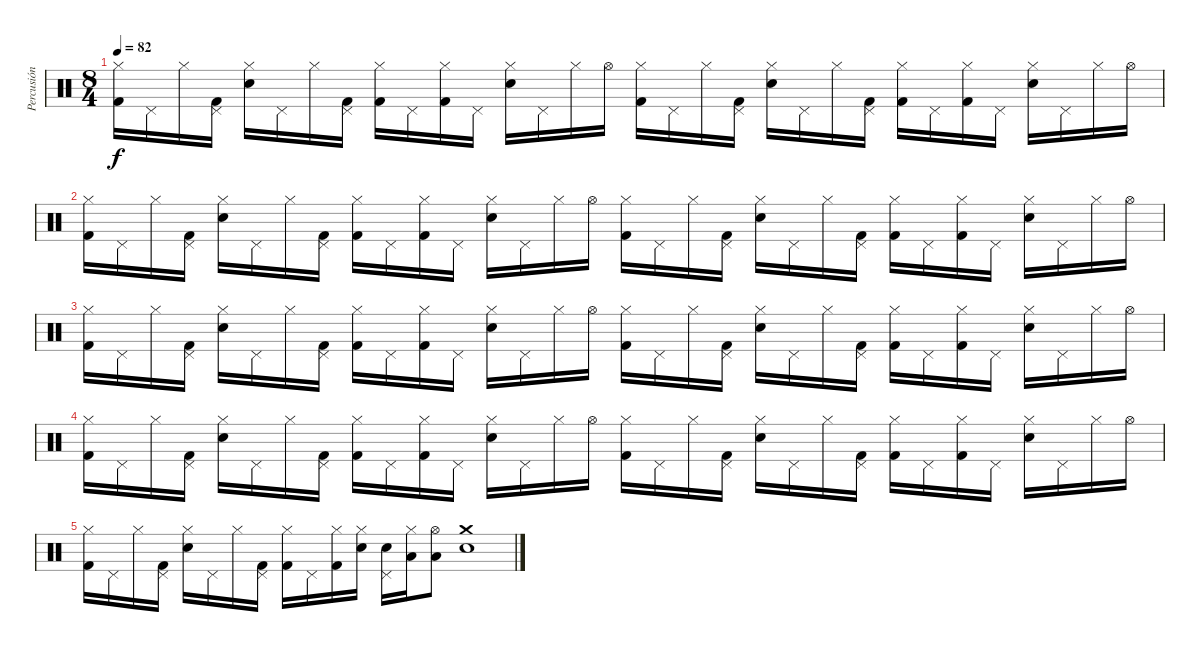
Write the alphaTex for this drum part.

\track ("Percusión" "Percusión") {instrument percussion}
\staff {score}
\articulation defaults
\ts (8 4)
\tempo 82
\clef neutral
\ks c
("Hi-Hat (closed)" "Kick (hit) 2").16{dy f} "Pedal Hi-Hat (hit)".16 "Hi-Hat (closed)".16 ("Pedal Hi-Hat (hit)" "Kick (hit) 2").16 ("Hi-Hat (closed)" "Electric Snare (hit)").16 "Pedal Hi-Hat (hit)".16 "Hi-Hat (closed)".16 ("Pedal Hi-Hat (hit)" "Kick (hit) 2").16 ("Hi-Hat (closed)" "Kick (hit) 2").16 "Pedal Hi-Hat (hit)".16 ("Hi-Hat (closed)" "Kick (hit) 2").16 "Pedal Hi-Hat (hit)".16 ("Hi-Hat (closed)" "Electric Snare (hit)").16 "Pedal Hi-Hat (hit)".16 "Hi-Hat (closed)".16 "Hi-Hat (open)".16 ("Hi-Hat (closed)" "Kick (hit) 2").16 "Pedal Hi-Hat (hit)".16 "Hi-Hat (closed)".16 ("Pedal Hi-Hat (hit)" "Kick (hit) 2").16 ("Hi-Hat (closed)" "Electric Snare (hit)").16 "Pedal Hi-Hat (hit)".16 "Hi-Hat (closed)".16 ("Pedal Hi-Hat (hit)" "Kick (hit) 2").16 ("Hi-Hat (closed)" "Kick (hit) 2").16 "Pedal Hi-Hat (hit)".16 ("Hi-Hat (closed)" "Kick (hit) 2").16 "Pedal Hi-Hat (hit)".16 ("Hi-Hat (closed)" "Electric Snare (hit)").16 "Pedal Hi-Hat (hit)".16 "Hi-Hat (closed)".16 "Hi-Hat (open)".16 |
("Hi-Hat (closed)" "Kick (hit) 2").16 "Pedal Hi-Hat (hit)".16 "Hi-Hat (closed)".16 ("Pedal Hi-Hat (hit)" "Kick (hit) 2").16 ("Hi-Hat (closed)" "Electric Snare (hit)").16 "Pedal Hi-Hat (hit)".16 "Hi-Hat (closed)".16 ("Pedal Hi-Hat (hit)" "Kick (hit) 2").16 ("Hi-Hat (closed)" "Kick (hit) 2").16 "Pedal Hi-Hat (hit)".16 ("Hi-Hat (closed)" "Kick (hit) 2").16 "Pedal Hi-Hat (hit)".16 ("Hi-Hat (closed)" "Electric Snare (hit)").16 "Pedal Hi-Hat (hit)".16 "Hi-Hat (closed)".16 "Hi-Hat (open)".16 ("Hi-Hat (closed)" "Kick (hit) 2").16 "Pedal Hi-Hat (hit)".16 "Hi-Hat (closed)".16 ("Pedal Hi-Hat (hit)" "Kick (hit) 2").16 ("Hi-Hat (closed)" "Electric Snare (hit)").16 "Pedal Hi-Hat (hit)".16 "Hi-Hat (closed)".16 ("Pedal Hi-Hat (hit)" "Kick (hit) 2").16 ("Hi-Hat (closed)" "Kick (hit) 2").16 "Pedal Hi-Hat (hit)".16 ("Hi-Hat (closed)" "Kick (hit) 2").16 "Pedal Hi-Hat (hit)".16 ("Hi-Hat (closed)" "Electric Snare (hit)").16 "Pedal Hi-Hat (hit)".16 "Hi-Hat (closed)".16 "Hi-Hat (open)".16 |
("Hi-Hat (closed)" "Kick (hit) 2").16 "Pedal Hi-Hat (hit)".16 "Hi-Hat (closed)".16 ("Pedal Hi-Hat (hit)" "Kick (hit) 2").16 ("Hi-Hat (closed)" "Electric Snare (hit)").16 "Pedal Hi-Hat (hit)".16 "Hi-Hat (closed)".16 ("Pedal Hi-Hat (hit)" "Kick (hit) 2").16 ("Hi-Hat (closed)" "Kick (hit) 2").16 "Pedal Hi-Hat (hit)".16 ("Hi-Hat (closed)" "Kick (hit) 2").16 "Pedal Hi-Hat (hit)".16 ("Hi-Hat (closed)" "Electric Snare (hit)").16 "Pedal Hi-Hat (hit)".16 "Hi-Hat (closed)".16 "Hi-Hat (open)".16 ("Hi-Hat (closed)" "Kick (hit) 2").16 "Pedal Hi-Hat (hit)".16 "Hi-Hat (closed)".16 ("Pedal Hi-Hat (hit)" "Kick (hit) 2").16 ("Hi-Hat (closed)" "Electric Snare (hit)").16 "Pedal Hi-Hat (hit)".16 "Hi-Hat (closed)".16 ("Pedal Hi-Hat (hit)" "Kick (hit) 2").16 ("Hi-Hat (closed)" "Kick (hit) 2").16 "Pedal Hi-Hat (hit)".16 ("Hi-Hat (closed)" "Kick (hit) 2").16 "Pedal Hi-Hat (hit)".16 ("Hi-Hat (closed)" "Electric Snare (hit)").16 "Pedal Hi-Hat (hit)".16 "Hi-Hat (closed)".16 "Hi-Hat (open)".16 |
("Hi-Hat (closed)" "Kick (hit) 2").16 "Pedal Hi-Hat (hit)".16 "Hi-Hat (closed)".16 ("Pedal Hi-Hat (hit)" "Kick (hit) 2").16 ("Hi-Hat (closed)" "Electric Snare (hit)").16 "Pedal Hi-Hat (hit)".16 "Hi-Hat (closed)".16 ("Pedal Hi-Hat (hit)" "Kick (hit) 2").16 ("Hi-Hat (closed)" "Kick (hit) 2").16 "Pedal Hi-Hat (hit)".16 ("Hi-Hat (closed)" "Kick (hit) 2").16 "Pedal Hi-Hat (hit)".16 ("Hi-Hat (closed)" "Electric Snare (hit)").16 "Pedal Hi-Hat (hit)".16 "Hi-Hat (closed)".16 "Hi-Hat (open)".16 ("Hi-Hat (closed)" "Kick (hit) 2").16 "Pedal Hi-Hat (hit)".16 "Hi-Hat (closed)".16 ("Pedal Hi-Hat (hit)" "Kick (hit) 2").16 ("Hi-Hat (closed)" "Electric Snare (hit)").16 "Pedal Hi-Hat (hit)".16 "Hi-Hat (closed)".16 ("Pedal Hi-Hat (hit)" "Kick (hit) 2").16 ("Hi-Hat (closed)" "Kick (hit) 2").16 "Pedal Hi-Hat (hit)".16 ("Hi-Hat (closed)" "Kick (hit) 2").16 "Pedal Hi-Hat (hit)".16 ("Hi-Hat (closed)" "Electric Snare (hit)").16 "Pedal Hi-Hat (hit)".16 "Hi-Hat (closed)".16 "Hi-Hat (open)".16 |
("Hi-Hat (closed)" "Kick (hit) 2").16 "Pedal Hi-Hat (hit)".16 "Hi-Hat (closed)".16 ("Pedal Hi-Hat (hit)" "Kick (hit) 2").16 ("Hi-Hat (closed)" "Electric Snare (hit)").16 "Pedal Hi-Hat (hit)".16 "Hi-Hat (closed)".16 ("Pedal Hi-Hat (hit)" "Kick (hit) 2").16 ("Hi-Hat (closed)" "Kick (hit) 2").16 "Pedal Hi-Hat (hit)".16 ("Hi-Hat (closed)" "Kick (hit) 2").16 ("Hi-Hat (closed)" "Electric Snare (hit)").16 ("Pedal Hi-Hat (hit)" "Electric Snare (hit)").16 ("Hi-Hat (closed)" "Low Floor Tom (hit)").16 ("Hi-Hat (open)" "Low Floor Tom (hit)").8 ("Electric Snare (hit)" "Crash medium (hit)").1
